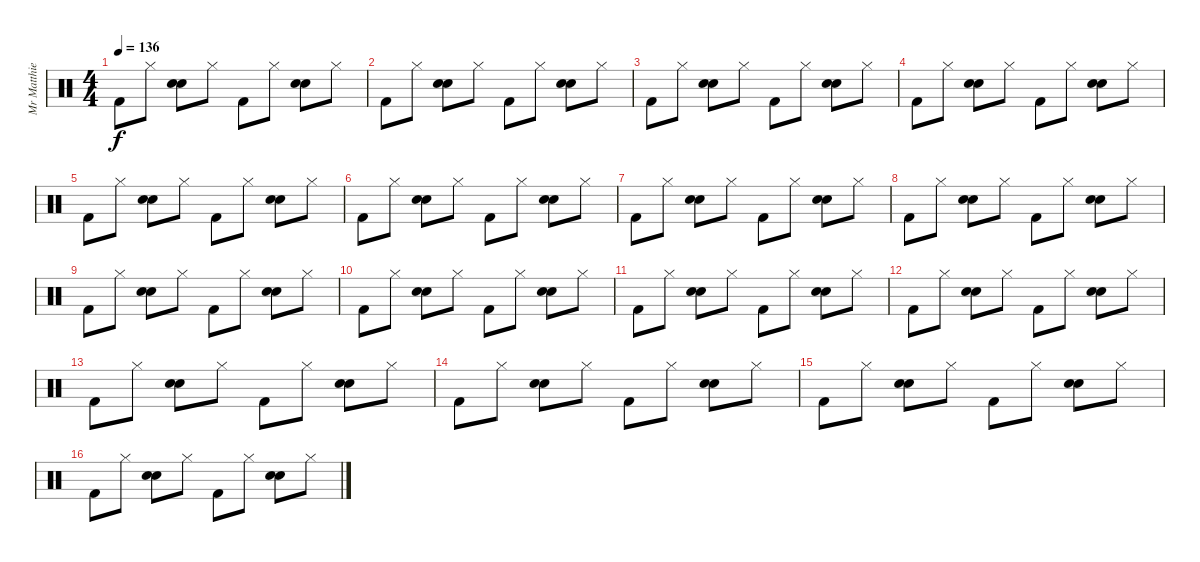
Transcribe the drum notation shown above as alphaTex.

\track ("Mr Matthieu (Batterie)" "Mr Matthie") {instrument percussion}
\staff {score}
\articulation defaults
\ts (4 4)
\tempo 136
\clef neutral
\ks c "Kick (hit) 2".8{dy f} "Hi-Hat (closed)".8
("Electric Snare (hit)" "Snare (hit) 2").8 "Hi-Hat (closed)".8 "Kick (hit) 2".8 "Hi-Hat (closed)".8 ("Electric Snare (hit)" "Snare (hit) 2").8 "Hi-Hat (closed)".8 |
"Kick (hit) 2".8 "Hi-Hat (closed)".8 ("Electric Snare (hit)" "Snare (hit) 2").8 "Hi-Hat (closed)".8 "Kick (hit) 2".8 "Hi-Hat (closed)".8 ("Electric Snare (hit)" "Snare (hit) 2").8 "Hi-Hat (closed)".8 |
"Kick (hit) 2".8 "Hi-Hat (closed)".8 ("Electric Snare (hit)" "Snare (hit) 2").8 "Hi-Hat (closed)".8 "Kick (hit) 2".8 "Hi-Hat (closed)".8 ("Electric Snare (hit)" "Snare (hit) 2").8 "Hi-Hat (closed)".8 |
"Kick (hit) 2".8 "Hi-Hat (closed)".8 ("Electric Snare (hit)" "Snare (hit) 2").8 "Hi-Hat (closed)".8 "Kick (hit) 2".8 "Hi-Hat (closed)".8 ("Electric Snare (hit)" "Snare (hit) 2").8 "Hi-Hat (closed)".8 |
"Kick (hit) 2".8 "Hi-Hat (closed)".8 ("Electric Snare (hit)" "Snare (hit) 2").8 "Hi-Hat (closed)".8 "Kick (hit) 2".8 "Hi-Hat (closed)".8 ("Electric Snare (hit)" "Snare (hit) 2").8 "Hi-Hat (closed)".8 |
"Kick (hit) 2".8 "Hi-Hat (closed)".8 ("Electric Snare (hit)" "Snare (hit) 2").8 "Hi-Hat (closed)".8 "Kick (hit) 2".8 "Hi-Hat (closed)".8 ("Electric Snare (hit)" "Snare (hit) 2").8 "Hi-Hat (closed)".8 |
"Kick (hit) 2".8 "Hi-Hat (closed)".8 ("Electric Snare (hit)" "Snare (hit) 2").8 "Hi-Hat (closed)".8 "Kick (hit) 2".8 "Hi-Hat (closed)".8 ("Electric Snare (hit)" "Snare (hit) 2").8 "Hi-Hat (closed)".8 |
"Kick (hit) 2".8 "Hi-Hat (closed)".8 ("Electric Snare (hit)" "Snare (hit) 2").8 "Hi-Hat (closed)".8 "Kick (hit) 2".8 "Hi-Hat (closed)".8 ("Electric Snare (hit)" "Snare (hit) 2").8 "Hi-Hat (closed)".8 |
"Kick (hit) 2".8 "Hi-Hat (closed)".8 ("Electric Snare (hit)" "Snare (hit) 2").8 "Hi-Hat (closed)".8 "Kick (hit) 2".8 "Hi-Hat (closed)".8 ("Electric Snare (hit)" "Snare (hit) 2").8 "Hi-Hat (closed)".8 |
"Kick (hit) 2".8 "Hi-Hat (closed)".8 ("Electric Snare (hit)" "Snare (hit) 2").8 "Hi-Hat (closed)".8 "Kick (hit) 2".8 "Hi-Hat (closed)".8 ("Electric Snare (hit)" "Snare (hit) 2").8 "Hi-Hat (closed)".8 |
"Kick (hit) 2".8 "Hi-Hat (closed)".8 ("Electric Snare (hit)" "Snare (hit) 2").8 "Hi-Hat (closed)".8 "Kick (hit) 2".8 "Hi-Hat (closed)".8 ("Electric Snare (hit)" "Snare (hit) 2").8 "Hi-Hat (closed)".8 |
"Kick (hit) 2".8 "Hi-Hat (closed)".8 ("Electric Snare (hit)" "Snare (hit) 2").8 "Hi-Hat (closed)".8 "Kick (hit) 2".8 "Hi-Hat (closed)".8 ("Electric Snare (hit)" "Snare (hit) 2").8 "Hi-Hat (closed)".8 |
"Kick (hit) 2".8 "Hi-Hat (closed)".8 ("Electric Snare (hit)" "Snare (hit) 2").8 "Hi-Hat (closed)".8 "Kick (hit) 2".8 "Hi-Hat (closed)".8 ("Electric Snare (hit)" "Snare (hit) 2").8 "Hi-Hat (closed)".8 |
"Kick (hit) 2".8 "Hi-Hat (closed)".8 ("Electric Snare (hit)" "Snare (hit) 2").8 "Hi-Hat (closed)".8 "Kick (hit) 2".8 "Hi-Hat (closed)".8 ("Electric Snare (hit)" "Snare (hit) 2").8 "Hi-Hat (closed)".8 |
"Kick (hit) 2".8 "Hi-Hat (closed)".8 ("Electric Snare (hit)" "Snare (hit) 2").8 "Hi-Hat (closed)".8 "Kick (hit) 2".8 "Hi-Hat (closed)".8 ("Electric Snare (hit)" "Snare (hit) 2").8 "Hi-Hat (closed)".8 |
"Kick (hit) 2".8 "Hi-Hat (closed)".8 ("Electric Snare (hit)" "Snare (hit) 2").8 "Hi-Hat (closed)".8 "Kick (hit) 2".8 "Hi-Hat (closed)".8 ("Electric Snare (hit)" "Snare (hit) 2").8 "Hi-Hat (closed)".8
